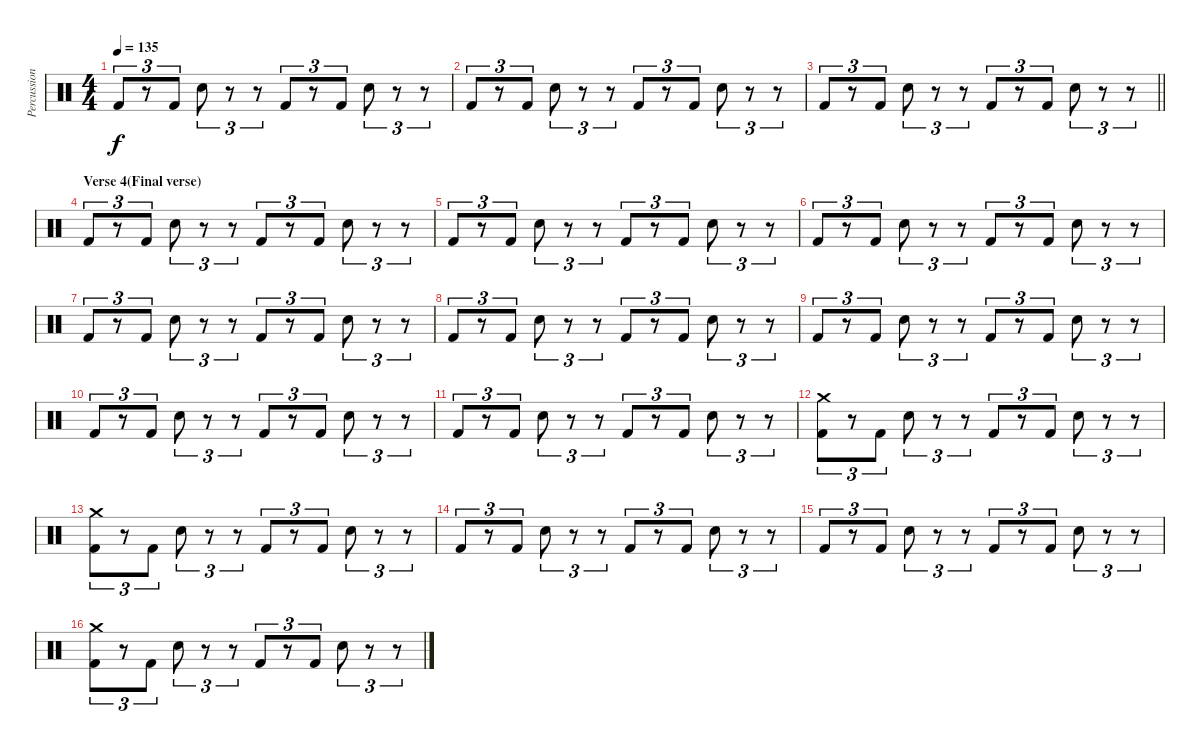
\track ("Percussion" "Percussion") {instrument percussion}
\staff {score}
\articulation defaults
\ts (4 4)
\tempo 135
\clef neutral
\ks c "Kick (hit) 2".8{tu (3 2) dy f}
r.8{tu (3 2)} "Kick (hit) 2".8{tu (3 2)} "Electric Snare (hit)".8{tu (3 2)} r.8{tu (3 2)} r.8{tu (3 2)} "Kick (hit) 2".8{tu (3 2)} r.8{tu (3 2)} "Kick (hit) 2".8{tu (3 2)} "Electric Snare (hit)".8{tu (3 2)} r.8{tu (3 2)} r.8{tu (3 2)} |
"Kick (hit) 2".8{tu (3 2)} r.8{tu (3 2)} "Kick (hit) 2".8{tu (3 2)} "Electric Snare (hit)".8{tu (3 2)} r.8{tu (3 2)} r.8{tu (3 2)} "Kick (hit) 2".8{tu (3 2)} r.8{tu (3 2)} "Kick (hit) 2".8{tu (3 2)} "Electric Snare (hit)".8{tu (3 2)} r.8{tu (3 2)} r.8{tu (3 2)} |
\barLineRight lightlight "Kick (hit) 2".8{tu (3 2)}
r.8{tu (3 2)} "Kick (hit) 2".8{tu (3 2)} "Electric Snare (hit)".8{tu (3 2)} r.8{tu (3 2)} r.8{tu (3 2)} "Kick (hit) 2".8{tu (3 2)} r.8{tu (3 2)} "Kick (hit) 2".8{tu (3 2)} "Electric Snare (hit)".8{tu (3 2)} r.8{tu (3 2)} r.8{tu (3 2)} |
\section ("" "Verse 4(Final verse)")
"Kick (hit) 2".8{tu (3 2)} r.8{tu (3 2)} "Kick (hit) 2".8{tu (3 2)} "Electric Snare (hit)".8{tu (3 2)} r.8{tu (3 2)} r.8{tu (3 2)} "Kick (hit) 2".8{tu (3 2)} r.8{tu (3 2)} "Kick (hit) 2".8{tu (3 2)} "Electric Snare (hit)".8{tu (3 2)} r.8{tu (3 2)} r.8{tu (3 2)} |
"Kick (hit) 2".8{tu (3 2)} r.8{tu (3 2)} "Kick (hit) 2".8{tu (3 2)} "Electric Snare (hit)".8{tu (3 2)} r.8{tu (3 2)} r.8{tu (3 2)} "Kick (hit) 2".8{tu (3 2)} r.8{tu (3 2)} "Kick (hit) 2".8{tu (3 2)} "Electric Snare (hit)".8{tu (3 2)} r.8{tu (3 2)} r.8{tu (3 2)} |
"Kick (hit) 2".8{tu (3 2)} r.8{tu (3 2)} "Kick (hit) 2".8{tu (3 2)} "Electric Snare (hit)".8{tu (3 2)} r.8{tu (3 2)} r.8{tu (3 2)} "Kick (hit) 2".8{tu (3 2)} r.8{tu (3 2)} "Kick (hit) 2".8{tu (3 2)} "Electric Snare (hit)".8{tu (3 2)} r.8{tu (3 2)} r.8{tu (3 2)} |
"Kick (hit) 2".8{tu (3 2)} r.8{tu (3 2)} "Kick (hit) 2".8{tu (3 2)} "Electric Snare (hit)".8{tu (3 2)} r.8{tu (3 2)} r.8{tu (3 2)} "Kick (hit) 2".8{tu (3 2)} r.8{tu (3 2)} "Kick (hit) 2".8{tu (3 2)} "Electric Snare (hit)".8{tu (3 2)} r.8{tu (3 2)} r.8{tu (3 2)} |
"Kick (hit) 2".8{tu (3 2)} r.8{tu (3 2)} "Kick (hit) 2".8{tu (3 2)} "Electric Snare (hit)".8{tu (3 2)} r.8{tu (3 2)} r.8{tu (3 2)} "Kick (hit) 2".8{tu (3 2)} r.8{tu (3 2)} "Kick (hit) 2".8{tu (3 2)} "Electric Snare (hit)".8{tu (3 2)} r.8{tu (3 2)} r.8{tu (3 2)} |
"Kick (hit) 2".8{tu (3 2)} r.8{tu (3 2)} "Kick (hit) 2".8{tu (3 2)} "Electric Snare (hit)".8{tu (3 2)} r.8{tu (3 2)} r.8{tu (3 2)} "Kick (hit) 2".8{tu (3 2)} r.8{tu (3 2)} "Kick (hit) 2".8{tu (3 2)} "Electric Snare (hit)".8{tu (3 2)} r.8{tu (3 2)} r.8{tu (3 2)} |
"Kick (hit) 2".8{tu (3 2)} r.8{tu (3 2)} "Kick (hit) 2".8{tu (3 2)} "Electric Snare (hit)".8{tu (3 2)} r.8{tu (3 2)} r.8{tu (3 2)} "Kick (hit) 2".8{tu (3 2)} r.8{tu (3 2)} "Kick (hit) 2".8{tu (3 2)} "Electric Snare (hit)".8{tu (3 2)} r.8{tu (3 2)} r.8{tu (3 2)} |
"Kick (hit) 2".8{tu (3 2)} r.8{tu (3 2)} "Kick (hit) 2".8{tu (3 2)} "Electric Snare (hit)".8{tu (3 2)} r.8{tu (3 2)} r.8{tu (3 2)} "Kick (hit) 2".8{tu (3 2)} r.8{tu (3 2)} "Kick (hit) 2".8{tu (3 2)} "Electric Snare (hit)".8{tu (3 2)} r.8{tu (3 2)} r.8{tu (3 2)} |
("Crash medium (hit)" "Kick (hit) 2").8{tu (3 2)} r.8{tu (3 2)} "Kick (hit) 2".8{tu (3 2)} "Electric Snare (hit)".8{tu (3 2)} r.8{tu (3 2)} r.8{tu (3 2)} "Kick (hit) 2".8{tu (3 2)} r.8{tu (3 2)} "Kick (hit) 2".8{tu (3 2)} "Electric Snare (hit)".8{tu (3 2)} r.8{tu (3 2)} r.8{tu (3 2)} |
("Crash medium (hit)" "Kick (hit) 2").8{tu (3 2)} r.8{tu (3 2)} "Kick (hit) 2".8{tu (3 2)} "Electric Snare (hit)".8{tu (3 2)} r.8{tu (3 2)} r.8{tu (3 2)} "Kick (hit) 2".8{tu (3 2)} r.8{tu (3 2)} "Kick (hit) 2".8{tu (3 2)} "Electric Snare (hit)".8{tu (3 2)} r.8{tu (3 2)} r.8{tu (3 2)} |
"Kick (hit) 2".8{tu (3 2)} r.8{tu (3 2)} "Kick (hit) 2".8{tu (3 2)} "Electric Snare (hit)".8{tu (3 2)} r.8{tu (3 2)} r.8{tu (3 2)} "Kick (hit) 2".8{tu (3 2)} r.8{tu (3 2)} "Kick (hit) 2".8{tu (3 2)} "Electric Snare (hit)".8{tu (3 2)} r.8{tu (3 2)} r.8{tu (3 2)} |
"Kick (hit) 2".8{tu (3 2)} r.8{tu (3 2)} "Kick (hit) 2".8{tu (3 2)} "Electric Snare (hit)".8{tu (3 2)} r.8{tu (3 2)} r.8{tu (3 2)} "Kick (hit) 2".8{tu (3 2)} r.8{tu (3 2)} "Kick (hit) 2".8{tu (3 2)} "Electric Snare (hit)".8{tu (3 2)} r.8{tu (3 2)} r.8{tu (3 2)} |
("Crash medium (hit)" "Kick (hit) 2").8{tu (3 2)} r.8{tu (3 2)} "Kick (hit) 2".8{tu (3 2)} "Electric Snare (hit)".8{tu (3 2)} r.8{tu (3 2)} r.8{tu (3 2)} "Kick (hit) 2".8{tu (3 2)} r.8{tu (3 2)} "Kick (hit) 2".8{tu (3 2)} "Electric Snare (hit)".8{tu (3 2)} r.8{tu (3 2)} r.8{tu (3 2)}
